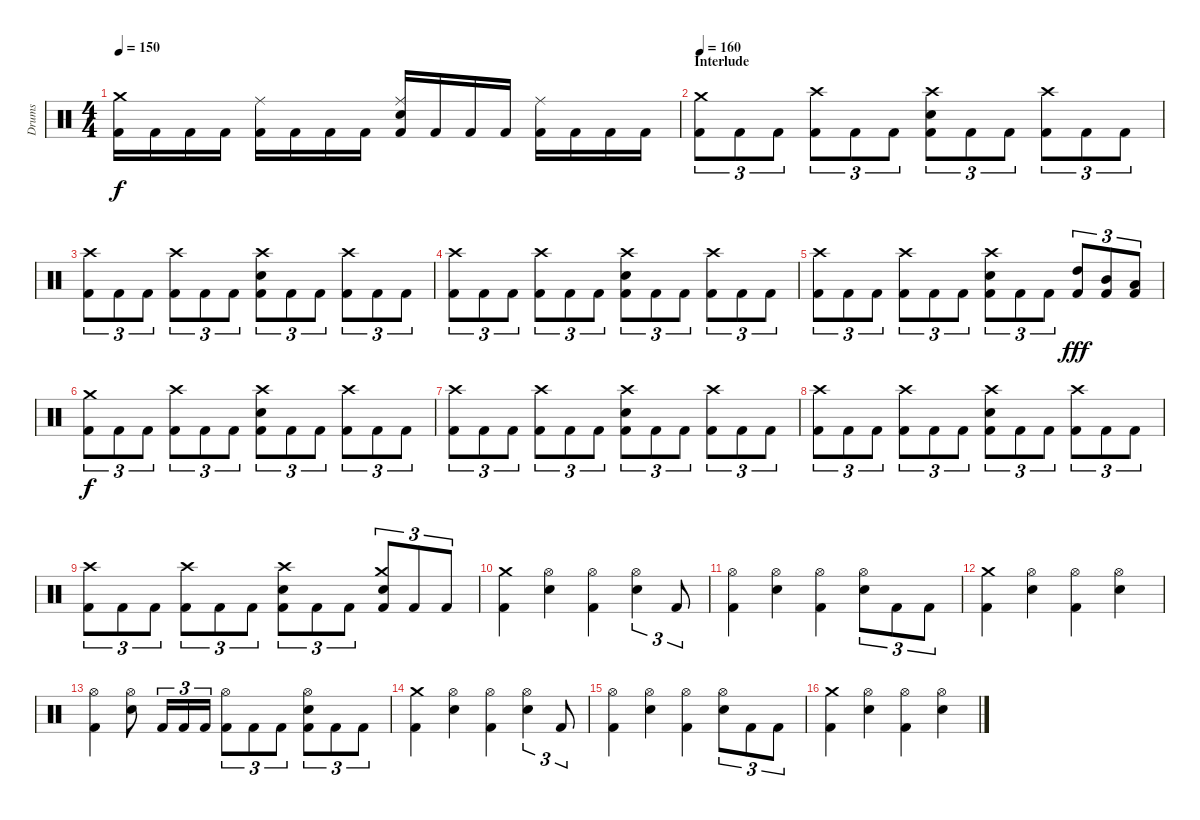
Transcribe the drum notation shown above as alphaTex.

\track ("Drums" "Drums") {instrument percussion}
\staff {score}
\articulation defaults
\ts (4 4)
\tempo 150
\clef neutral
\ks c
("Kick (hit) 2" "Crash medium (hit)").16{dy f} "Kick (hit) 2".16 "Kick (hit) 2".16 "Kick (hit) 2".16 ("Kick (hit) 2" "Ride (middle)").16 "Kick (hit) 2".16 "Kick (hit) 2".16 "Kick (hit) 2".16 ("Kick (hit) 2" "Electric Snare (hit)" "Ride (middle)").16 "Kick (hit) 2".16 "Kick (hit) 2".16 "Kick (hit) 2".16 ("Kick (hit) 2" "Ride (middle)").16 "Kick (hit) 2".16 "Kick (hit) 2".16 "Kick (hit) 2".16 |
\section ("" "Interlude")
\tempo 160
("Kick (hit) 2" "Crash medium (hit)").8{tu (3 2)} "Kick (hit) 2".8{tu (3 2)} "Kick (hit) 2".8{tu (3 2)} ("Kick (hit) 2" "Crash high (hit)").8{tu (3 2)} "Kick (hit) 2".8{tu (3 2)} "Kick (hit) 2".8{tu (3 2)} ("Kick (hit) 2" "Electric Snare (hit)" "Crash high (hit)").8{tu (3 2)} "Kick (hit) 2".8{tu (3 2)} "Kick (hit) 2".8{tu (3 2)} ("Kick (hit) 2" "Crash high (hit)").8{tu (3 2)} "Kick (hit) 2".8{tu (3 2)} "Kick (hit) 2".8{tu (3 2)} |
("Kick (hit) 2" "Crash high (hit)").8{tu (3 2)} "Kick (hit) 2".8{tu (3 2)} "Kick (hit) 2".8{tu (3 2)} ("Kick (hit) 2" "Crash high (hit)").8{tu (3 2)} "Kick (hit) 2".8{tu (3 2)} "Kick (hit) 2".8{tu (3 2)} ("Kick (hit) 2" "Electric Snare (hit)" "Crash high (hit)").8{tu (3 2)} "Kick (hit) 2".8{tu (3 2)} "Kick (hit) 2".8{tu (3 2)} ("Kick (hit) 2" "Crash high (hit)").8{tu (3 2)} "Kick (hit) 2".8{tu (3 2)} "Kick (hit) 2".8{tu (3 2)} |
("Kick (hit) 2" "Crash high (hit)").8{tu (3 2)} "Kick (hit) 2".8{tu (3 2)} "Kick (hit) 2".8{tu (3 2)} ("Kick (hit) 2" "Crash high (hit)").8{tu (3 2)} "Kick (hit) 2".8{tu (3 2)} "Kick (hit) 2".8{tu (3 2)} ("Kick (hit) 2" "Electric Snare (hit)" "Crash high (hit)").8{tu (3 2)} "Kick (hit) 2".8{tu (3 2)} "Kick (hit) 2".8{tu (3 2)} ("Kick (hit) 2" "Crash high (hit)").8{tu (3 2)} "Kick (hit) 2".8{tu (3 2)} "Kick (hit) 2".8{tu (3 2)} |
("Kick (hit) 2" "Crash high (hit)").8{tu (3 2)} "Kick (hit) 2".8{tu (3 2)} "Kick (hit) 2".8{tu (3 2)} ("Kick (hit) 2" "Crash high (hit)").8{tu (3 2)} "Kick (hit) 2".8{tu (3 2)} "Kick (hit) 2".8{tu (3 2)} ("Kick (hit) 2" "Electric Snare (hit)" "Crash high (hit)").8{tu (3 2)} "Kick (hit) 2".8{tu (3 2)} "Kick (hit) 2".8{tu (3 2)} ("Kick (hit) 2" "High Tom (hit)").8{tu (3 2) dy fff} ("Kick (hit) 2" "Mid Tom (hit)").8{tu (3 2)} ("Kick (hit) 2" "Low Tom (hit)").8{tu (3 2)} |
("Kick (hit) 2" "Crash medium (hit)").8{tu (3 2) dy f} "Kick (hit) 2".8{tu (3 2)} "Kick (hit) 2".8{tu (3 2)} ("Kick (hit) 2" "Crash high (hit)").8{tu (3 2)} "Kick (hit) 2".8{tu (3 2)} "Kick (hit) 2".8{tu (3 2)} ("Kick (hit) 2" "Electric Snare (hit)" "Crash high (hit)").8{tu (3 2)} "Kick (hit) 2".8{tu (3 2)} "Kick (hit) 2".8{tu (3 2)} ("Kick (hit) 2" "Crash high (hit)").8{tu (3 2)} "Kick (hit) 2".8{tu (3 2)} "Kick (hit) 2".8{tu (3 2)} |
("Kick (hit) 2" "Crash high (hit)").8{tu (3 2)} "Kick (hit) 2".8{tu (3 2)} "Kick (hit) 2".8{tu (3 2)} ("Kick (hit) 2" "Crash high (hit)").8{tu (3 2)} "Kick (hit) 2".8{tu (3 2)} "Kick (hit) 2".8{tu (3 2)} ("Kick (hit) 2" "Electric Snare (hit)" "Crash high (hit)").8{tu (3 2)} "Kick (hit) 2".8{tu (3 2)} "Kick (hit) 2".8{tu (3 2)} ("Kick (hit) 2" "Crash high (hit)").8{tu (3 2)} "Kick (hit) 2".8{tu (3 2)} "Kick (hit) 2".8{tu (3 2)} |
("Kick (hit) 2" "Crash high (hit)").8{tu (3 2)} "Kick (hit) 2".8{tu (3 2)} "Kick (hit) 2".8{tu (3 2)} ("Kick (hit) 2" "Crash high (hit)").8{tu (3 2)} "Kick (hit) 2".8{tu (3 2)} "Kick (hit) 2".8{tu (3 2)} ("Kick (hit) 2" "Electric Snare (hit)" "Crash high (hit)").8{tu (3 2)} "Kick (hit) 2".8{tu (3 2)} "Kick (hit) 2".8{tu (3 2)} ("Kick (hit) 2" "Crash high (hit)").8{tu (3 2)} "Kick (hit) 2".8{tu (3 2)} "Kick (hit) 2".8{tu (3 2)} |
("Kick (hit) 2" "Crash high (hit)").8{tu (3 2)} "Kick (hit) 2".8{tu (3 2)} "Kick (hit) 2".8{tu (3 2)} ("Kick (hit) 2" "Crash high (hit)").8{tu (3 2)} "Kick (hit) 2".8{tu (3 2)} "Kick (hit) 2".8{tu (3 2)} ("Kick (hit) 2" "Electric Snare (hit)" "Crash high (hit)").8{tu (3 2)} "Kick (hit) 2".8{tu (3 2)} "Kick (hit) 2".8{tu (3 2)} ("Kick (hit) 2" "Electric Snare (hit)" "Crash medium (hit)").8{tu (3 2)} "Kick (hit) 2".8{tu (3 2)} "Kick (hit) 2".8{tu (3 2)} |
("Kick (hit) 2" "Crash medium (hit)").4 ("Electric Snare (hit)" "Hi-Hat (open)").4 ("Kick (hit) 2" "Hi-Hat (open)").4 ("Electric Snare (hit)" "Hi-Hat (open)").4{tu (3 2)} "Kick (hit) 2".8{tu (3 2)} |
("Kick (hit) 2" "Hi-Hat (open)").4 ("Electric Snare (hit)" "Hi-Hat (open)").4 ("Kick (hit) 2" "Hi-Hat (open)").4 ("Electric Snare (hit)" "Hi-Hat (open)").8{tu (3 2)} "Kick (hit) 2".8{tu (3 2)} "Kick (hit) 2".8{tu (3 2)} |
("Kick (hit) 2" "Crash medium (hit)").4 ("Electric Snare (hit)" "Hi-Hat (open)").4 ("Kick (hit) 2" "Hi-Hat (open)").4 ("Electric Snare (hit)" "Hi-Hat (open)").4 |
("Kick (hit) 2" "Hi-Hat (open)").4 ("Electric Snare (hit)" "Hi-Hat (open)").8 "Kick (hit) 2".16{tu (3 2)} "Kick (hit) 2".16{tu (3 2)} "Kick (hit) 2".16{tu (3 2)} ("Kick (hit) 2" "Hi-Hat (open)").8{tu (3 2)} "Kick (hit) 2".8{tu (3 2)} "Kick (hit) 2".8{tu (3 2)} ("Kick (hit) 2" "Electric Snare (hit)" "Hi-Hat (open)").8{tu (3 2)} "Kick (hit) 2".8{tu (3 2)} "Kick (hit) 2".8{tu (3 2)} |
("Kick (hit) 2" "Crash medium (hit)").4 ("Electric Snare (hit)" "Hi-Hat (open)").4 ("Kick (hit) 2" "Hi-Hat (open)").4 ("Electric Snare (hit)" "Hi-Hat (open)").4{tu (3 2)} "Kick (hit) 2".8{tu (3 2)} |
("Kick (hit) 2" "Hi-Hat (open)").4 ("Electric Snare (hit)" "Hi-Hat (open)").4 ("Kick (hit) 2" "Hi-Hat (open)").4 ("Electric Snare (hit)" "Hi-Hat (open)").8{tu (3 2)} "Kick (hit) 2".8{tu (3 2)} "Kick (hit) 2".8{tu (3 2)} |
("Kick (hit) 2" "Crash medium (hit)").4 ("Electric Snare (hit)" "Hi-Hat (open)").4 ("Kick (hit) 2" "Hi-Hat (open)").4 ("Electric Snare (hit)" "Hi-Hat (open)").4
